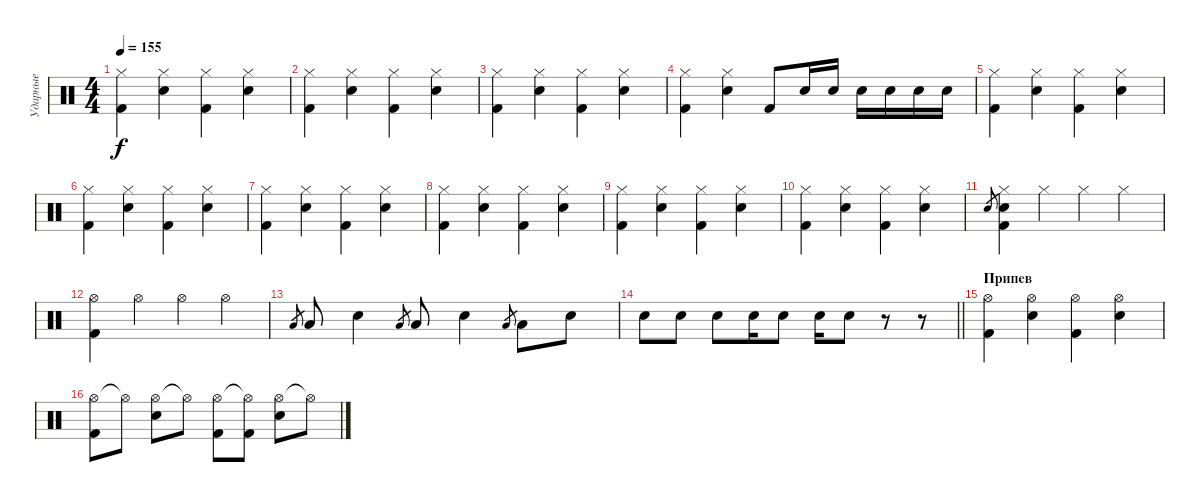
\track ("Ударные" "Ударные") {solo instrument percussion}
\staff {score}
\articulation defaults
\ts (4 4)
\tempo 155
\clef neutral
\ks c
("Hi-Hat (closed)" "Kick (hit) 2").4{dy f} ("Hi-Hat (closed)" "Electric Snare (hit)").4 ("Hi-Hat (closed)" "Kick (hit) 2").4 ("Hi-Hat (closed)" "Electric Snare (hit)").4 |
("Hi-Hat (closed)" "Kick (hit) 2").4 ("Hi-Hat (closed)" "Electric Snare (hit)").4 ("Hi-Hat (closed)" "Kick (hit) 2").4 ("Hi-Hat (closed)" "Electric Snare (hit)").4 |
("Hi-Hat (closed)" "Kick (hit) 2").4 ("Hi-Hat (closed)" "Electric Snare (hit)").4 ("Hi-Hat (closed)" "Kick (hit) 2").4 ("Hi-Hat (closed)" "Electric Snare (hit)").4 |
("Hi-Hat (closed)" "Kick (hit) 2").4 ("Hi-Hat (closed)" "Electric Snare (hit)").4 "Kick (hit) 2".8 "Electric Snare (hit)".16 "Electric Snare (hit)".16 "Electric Snare (hit)".16 "Electric Snare (hit)".16 "Electric Snare (hit)".16 "Electric Snare (hit)".16 |
("Hi-Hat (closed)" "Kick (hit) 2").4 ("Hi-Hat (closed)" "Electric Snare (hit)").4 ("Hi-Hat (closed)" "Kick (hit) 2").4 ("Hi-Hat (closed)" "Electric Snare (hit)").4 |
("Hi-Hat (closed)" "Kick (hit) 2").4 ("Hi-Hat (closed)" "Electric Snare (hit)").4 ("Hi-Hat (closed)" "Kick (hit) 2").4 ("Hi-Hat (closed)" "Electric Snare (hit)").4 |
("Hi-Hat (closed)" "Kick (hit) 2").4 ("Hi-Hat (closed)" "Electric Snare (hit)").4 ("Hi-Hat (closed)" "Kick (hit) 2").4 ("Hi-Hat (closed)" "Electric Snare (hit)").4 |
("Hi-Hat (closed)" "Kick (hit) 2").4 ("Hi-Hat (closed)" "Electric Snare (hit)").4 ("Hi-Hat (closed)" "Kick (hit) 2").4 ("Hi-Hat (closed)" "Electric Snare (hit)").4 |
("Hi-Hat (closed)" "Kick (hit) 2").4 ("Hi-Hat (closed)" "Electric Snare (hit)").4 ("Hi-Hat (closed)" "Kick (hit) 2").4 ("Hi-Hat (closed)" "Electric Snare (hit)").4 |
("Hi-Hat (closed)" "Kick (hit) 2").4 ("Hi-Hat (closed)" "Electric Snare (hit)").4 ("Hi-Hat (closed)" "Kick (hit) 2").4 ("Hi-Hat (closed)" "Electric Snare (hit)").4 |
"Electric Snare (hit)".8{gr} ("Hi-Hat (closed)" "Kick (hit) 2" "Electric Snare (hit)").4 "Hi-Hat (closed)".4 "Hi-Hat (closed)".4 "Hi-Hat (closed)".4 |
("Hi-Hat (open)" "Kick (hit) 2").4 "Hi-Hat (open)".4 "Hi-Hat (open)".4 "Hi-Hat (open)".4 |
"Low Tom (hit)".8{gr} "Low Tom (hit)".8 "Electric Snare (hit)".4 "Low Tom (hit)".8{gr} "Low Tom (hit)".8 "Electric Snare (hit)".4 "Low Tom (hit)".8{gr} "Low Tom (hit)".8 "Electric Snare (hit)".8 |
\barLineRight lightlight "Electric Snare (hit)".8 "Electric Snare (hit)".8 "Electric Snare (hit)".8 "Electric Snare (hit)".16 "Electric Snare (hit)".8 "Electric Snare (hit)".16 "Electric Snare (hit)".8
r.8 r.8 |
\section ("" "Припев")
("Hi-Hat (open)" "Kick (hit) 2").4 ("Hi-Hat (open)" "Electric Snare (hit)").4 ("Hi-Hat (open)" "Kick (hit) 2").4 ("Hi-Hat (open)" "Electric Snare (hit)").4 |
("Hi-Hat (open)" "Kick (hit) 2").8 "Hi-Hat (open)"{t}.8 ("Hi-Hat (open)" "Electric Snare (hit)").8 "Hi-Hat (open)"{t}.8 ("Hi-Hat (open)" "Kick (hit) 2").8 ("Hi-Hat (open)"{t} "Kick (hit) 2").8 ("Hi-Hat (open)" "Electric Snare (hit)").8 "Hi-Hat (open)"{t}.8
